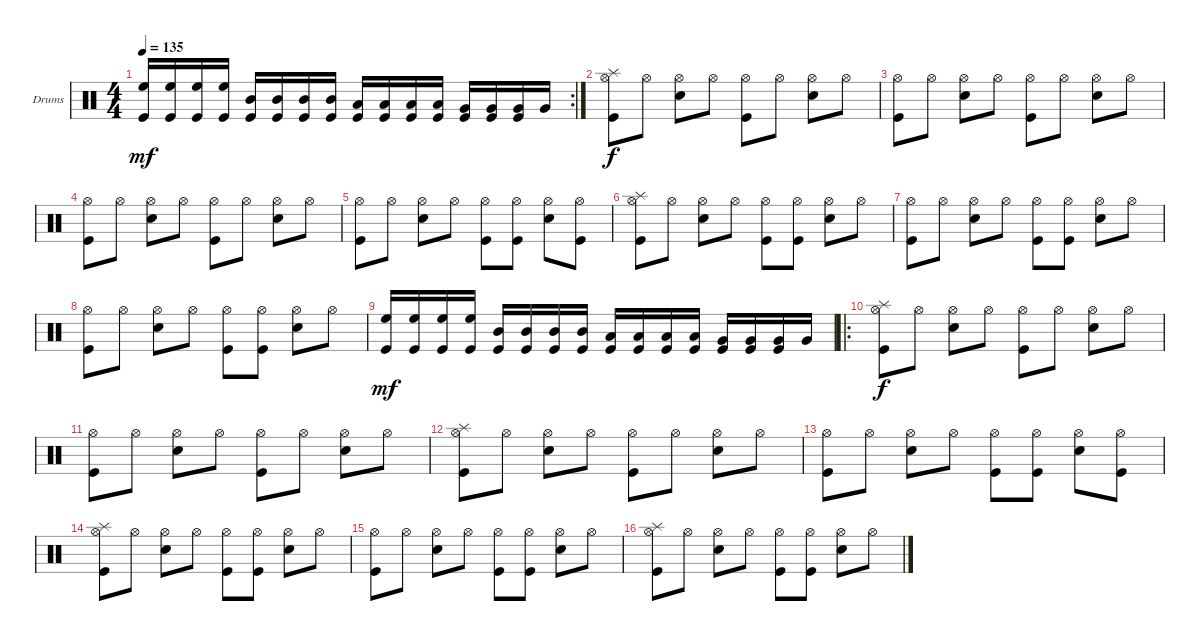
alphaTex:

\defaultSystemsLayout 4
\bracketExtendMode groupsimilarinstruments
\firstSystemTrackNameOrientation horizontal
\otherSystemsTrackNameOrientation horizontal
\track ("Drums" "Drums") {instrument percussion}
\staff {score}
\articulation defaults
\rc 2
\ts (4 4)
\tempo 135
\clef neutral
\ks c
("High Floor Tom (hit)" "Kick (hit)").16{dy mf} ("High Floor Tom (hit)" "Kick (hit)").16 ("High Floor Tom (hit)" "Kick (hit)").16 ("High Floor Tom (hit)" "Kick (hit)").16 ("Mid Tom (hit)" "Kick (hit)").16 ("Mid Tom (hit)" "Kick (hit)").16 ("Mid Tom (hit)" "Kick (hit)").16 ("Mid Tom (hit)" "Kick (hit)").16 ("Low Tom (hit)" "Kick (hit)").16 ("Low Tom (hit)" "Kick (hit)").16 ("Low Tom (hit)" "Kick (hit)").16 ("Low Tom (hit)" "Kick (hit)").16 ("Very Low Tom (hit)" "Kick (hit)").16 ("Very Low Tom (hit)" "Kick (hit)").16 ("Very Low Tom (hit)" "Kick (hit)").16 "Very Low Tom (hit)".16 |
("Hi-Hat (open)" "Kick (hit)" "Splash (hit)").8{dy f} "Hi-Hat (open)".8 ("Hi-Hat (open)" "Snare (hit) 2").8 "Hi-Hat (open)".8 ("Hi-Hat (open)" "Kick (hit)").8 "Hi-Hat (open)".8 ("Hi-Hat (open)" "Snare (hit) 2").8 "Hi-Hat (open)".8 |
("Hi-Hat (open)" "Kick (hit)").8 "Hi-Hat (open)".8 ("Hi-Hat (open)" "Snare (hit) 2").8 "Hi-Hat (open)".8 ("Hi-Hat (open)" "Kick (hit)").8 "Hi-Hat (open)".8 ("Hi-Hat (open)" "Snare (hit) 2").8 "Hi-Hat (open)".8 |
("Hi-Hat (open)" "Kick (hit)").8 "Hi-Hat (open)".8 ("Hi-Hat (open)" "Snare (hit) 2").8 "Hi-Hat (open)".8 ("Hi-Hat (open)" "Kick (hit)").8 "Hi-Hat (open)".8 ("Hi-Hat (open)" "Snare (hit) 2").8 "Hi-Hat (open)".8 |
("Hi-Hat (open)" "Kick (hit)").8 "Hi-Hat (open)".8 ("Hi-Hat (open)" "Snare (hit) 2").8 "Hi-Hat (open)".8 ("Hi-Hat (open)" "Kick (hit)").8 ("Hi-Hat (open)" "Kick (hit)").8 ("Hi-Hat (open)" "Snare (hit) 2").8 ("Hi-Hat (open)" "Kick (hit)").8 |
("Hi-Hat (open)" "Kick (hit)" "Splash (hit)").8 "Hi-Hat (open)".8 ("Hi-Hat (open)" "Snare (hit) 2").8 "Hi-Hat (open)".8 ("Hi-Hat (open)" "Kick (hit)").8 ("Hi-Hat (open)" "Kick (hit)").8 ("Hi-Hat (open)" "Snare (hit) 2").8 "Hi-Hat (open)".8 |
("Hi-Hat (open)" "Kick (hit)").8 "Hi-Hat (open)".8 ("Hi-Hat (open)" "Snare (hit) 2").8 "Hi-Hat (open)".8 ("Hi-Hat (open)" "Kick (hit)").8 ("Hi-Hat (open)" "Kick (hit)").8 ("Hi-Hat (open)" "Snare (hit) 2").8 "Hi-Hat (open)".8 |
("Hi-Hat (open)" "Kick (hit)").8 "Hi-Hat (open)".8 ("Hi-Hat (open)" "Snare (hit) 2").8 "Hi-Hat (open)".8 ("Hi-Hat (open)" "Kick (hit)").8 ("Hi-Hat (open)" "Kick (hit)").8 ("Hi-Hat (open)" "Snare (hit) 2").8 "Hi-Hat (open)".8 |
("High Floor Tom (hit)" "Kick (hit)").16{dy mf} ("High Floor Tom (hit)" "Kick (hit)").16 ("High Floor Tom (hit)" "Kick (hit)").16 ("High Floor Tom (hit)" "Kick (hit)").16 ("Mid Tom (hit)" "Kick (hit)").16 ("Mid Tom (hit)" "Kick (hit)").16 ("Mid Tom (hit)" "Kick (hit)").16 ("Mid Tom (hit)" "Kick (hit)").16 ("Low Tom (hit)" "Kick (hit)").16 ("Low Tom (hit)" "Kick (hit)").16 ("Low Tom (hit)" "Kick (hit)").16 ("Low Tom (hit)" "Kick (hit)").16 ("Very Low Tom (hit)" "Kick (hit)").16 ("Very Low Tom (hit)" "Kick (hit)").16 ("Very Low Tom (hit)" "Kick (hit)").16 "Very Low Tom (hit)".16 |
\ro
("Hi-Hat (open)" "Kick (hit)" "Splash (hit)").8{dy f} "Hi-Hat (open)".8 ("Hi-Hat (open)" "Snare (hit) 2").8 "Hi-Hat (open)".8 ("Hi-Hat (open)" "Kick (hit)").8 "Hi-Hat (open)".8 ("Hi-Hat (open)" "Snare (hit) 2").8 "Hi-Hat (open)".8 |
("Hi-Hat (open)" "Kick (hit)").8 "Hi-Hat (open)".8 ("Hi-Hat (open)" "Snare (hit) 2").8 "Hi-Hat (open)".8 ("Hi-Hat (open)" "Kick (hit)").8 "Hi-Hat (open)".8 ("Hi-Hat (open)" "Snare (hit) 2").8 "Hi-Hat (open)".8 |
("Hi-Hat (open)" "Kick (hit)" "Splash (hit)").8 "Hi-Hat (open)".8 ("Hi-Hat (open)" "Snare (hit) 2").8 "Hi-Hat (open)".8 ("Hi-Hat (open)" "Kick (hit)").8 "Hi-Hat (open)".8 ("Hi-Hat (open)" "Snare (hit) 2").8 "Hi-Hat (open)".8 |
("Hi-Hat (open)" "Kick (hit)").8 "Hi-Hat (open)".8 ("Hi-Hat (open)" "Snare (hit) 2").8 "Hi-Hat (open)".8 ("Hi-Hat (open)" "Kick (hit)").8 ("Hi-Hat (open)" "Kick (hit)").8 ("Hi-Hat (open)" "Snare (hit) 2").8 ("Hi-Hat (open)" "Kick (hit)").8 |
("Hi-Hat (open)" "Kick (hit)" "Splash (hit)").8 "Hi-Hat (open)".8 ("Hi-Hat (open)" "Snare (hit) 2").8 "Hi-Hat (open)".8 ("Hi-Hat (open)" "Kick (hit)").8 ("Hi-Hat (open)" "Kick (hit)").8 ("Hi-Hat (open)" "Snare (hit) 2").8 "Hi-Hat (open)".8 |
("Hi-Hat (open)" "Kick (hit)").8 "Hi-Hat (open)".8 ("Hi-Hat (open)" "Snare (hit) 2").8 "Hi-Hat (open)".8 ("Hi-Hat (open)" "Kick (hit)").8 ("Hi-Hat (open)" "Kick (hit)").8 ("Hi-Hat (open)" "Snare (hit) 2").8 "Hi-Hat (open)".8 |
("Hi-Hat (open)" "Kick (hit)" "Splash (hit)").8 "Hi-Hat (open)".8 ("Hi-Hat (open)" "Snare (hit) 2").8 "Hi-Hat (open)".8 ("Hi-Hat (open)" "Kick (hit)").8 ("Hi-Hat (open)" "Kick (hit)").8 ("Hi-Hat (open)" "Snare (hit) 2").8 "Hi-Hat (open)".8
